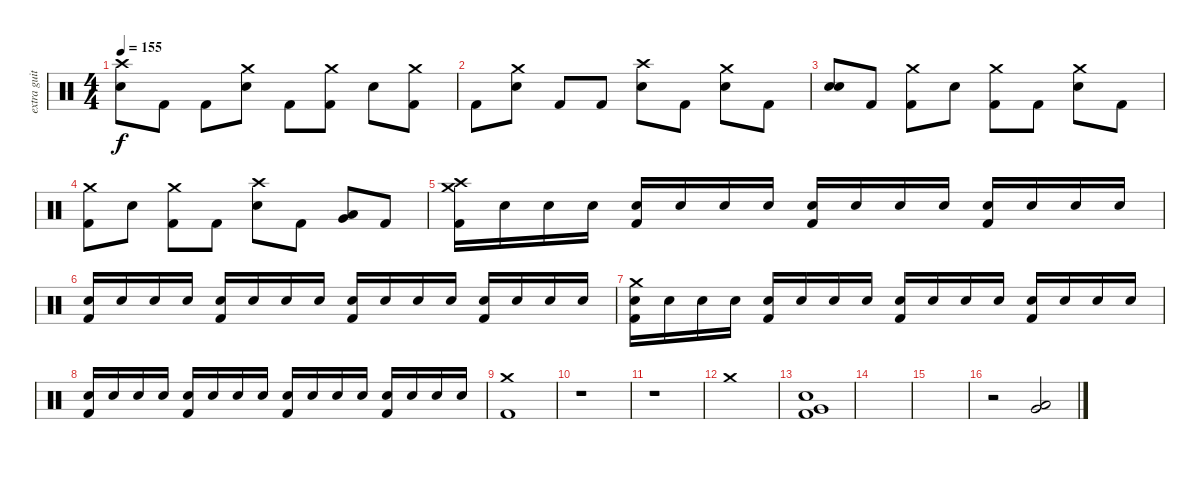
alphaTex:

\track ("extra guitar" "extra guit") {instrument percussion}
\staff {score}
\articulation defaults
\ts (4 4)
\tempo 155
\clef neutral
\ks c
("Crash high (hit)" "Electric Snare (hit)").8{dy f} "Kick (hit) 2".8 "Kick (hit) 2".8 ("Crash medium (hit)" "Electric Snare (hit)").8 "Kick (hit) 2".8 ("Crash medium (hit)" "Kick (hit) 2").8 "Electric Snare (hit)".8 ("Crash medium (hit)" "Kick (hit) 2").8 |
"Kick (hit) 2".8 ("Crash medium (hit)" "Electric Snare (hit)").8 "Kick (hit) 2".8 "Kick (hit) 2".8 ("Crash high (hit)" "Electric Snare (hit)").8 "Kick (hit) 2".8 ("Crash medium (hit)" "Electric Snare (hit)").8 "Kick (hit) 2".8 |
("Electric Snare (hit)" "Electric Snare (hit)").8 "Kick (hit) 2".8 ("Crash medium (hit)" "Kick (hit) 2").8 "Electric Snare (hit)".8 ("Crash medium (hit)" "Kick (hit) 2").8 "Kick (hit) 2".8 ("Crash medium (hit)" "Electric Snare (hit)").8 "Kick (hit) 2".8 |
("Crash medium (hit)" "Kick (hit) 2").8 "Electric Snare (hit)".8 ("Crash medium (hit)" "Kick (hit) 2").8 "Kick (hit) 2".8 ("Crash high (hit)" "Electric Snare (hit)").8 "Kick (hit) 2".8 ("Low Tom (hit)" "Very Low Tom (hit)").8 "Kick (hit) 2".8 |
("Crash medium (hit)" "Crash high (hit)" "Kick (hit) 2").16 "Electric Snare (hit)".16 "Electric Snare (hit)".16 "Electric Snare (hit)".16 ("Electric Snare (hit)" "Kick (hit) 2").16 "Electric Snare (hit)".16 "Electric Snare (hit)".16 "Electric Snare (hit)".16 ("Electric Snare (hit)" "Kick (hit) 2").16 "Electric Snare (hit)".16 "Electric Snare (hit)".16 "Electric Snare (hit)".16 ("Electric Snare (hit)" "Kick (hit) 2").16 "Electric Snare (hit)".16 "Electric Snare (hit)".16 "Electric Snare (hit)".16 |
("Electric Snare (hit)" "Kick (hit) 2").16 "Electric Snare (hit)".16 "Electric Snare (hit)".16 "Electric Snare (hit)".16 ("Electric Snare (hit)" "Kick (hit) 2").16 "Electric Snare (hit)".16 "Electric Snare (hit)".16 "Electric Snare (hit)".16 ("Electric Snare (hit)" "Kick (hit) 2").16 "Electric Snare (hit)".16 "Electric Snare (hit)".16 "Electric Snare (hit)".16 ("Electric Snare (hit)" "Kick (hit) 2").16 "Electric Snare (hit)".16 "Electric Snare (hit)".16 "Electric Snare (hit)".16 |
("Crash medium (hit)" "Electric Snare (hit)" "Kick (hit) 2").16 "Electric Snare (hit)".16 "Electric Snare (hit)".16 "Electric Snare (hit)".16 ("Electric Snare (hit)" "Kick (hit) 2").16 "Electric Snare (hit)".16 "Electric Snare (hit)".16 "Electric Snare (hit)".16 ("Electric Snare (hit)" "Kick (hit) 2").16 "Electric Snare (hit)".16 "Electric Snare (hit)".16 "Electric Snare (hit)".16 ("Electric Snare (hit)" "Kick (hit) 2").16 "Electric Snare (hit)".16 "Electric Snare (hit)".16 "Electric Snare (hit)".16 |
("Electric Snare (hit)" "Kick (hit) 2").16 "Electric Snare (hit)".16 "Electric Snare (hit)".16 "Electric Snare (hit)".16 ("Electric Snare (hit)" "Kick (hit) 2").16 "Electric Snare (hit)".16 "Electric Snare (hit)".16 "Electric Snare (hit)".16 ("Electric Snare (hit)" "Kick (hit) 2").16 "Electric Snare (hit)".16 "Electric Snare (hit)".16 "Electric Snare (hit)".16 ("Electric Snare (hit)" "Kick (hit) 2").16 "Electric Snare (hit)".16 "Electric Snare (hit)".16 "Electric Snare (hit)".16 |
("Crash medium (hit)" "Kick (hit) 2").1 |
r.1 |
r.1 |
"Crash medium (hit)".1 |
("Electric Snare (hit)" "Very Low Tom (hit)" "Kick (hit) 2").1 |
|
|
r.2 ("Low Tom (hit)" "Very Low Tom (hit)").2
